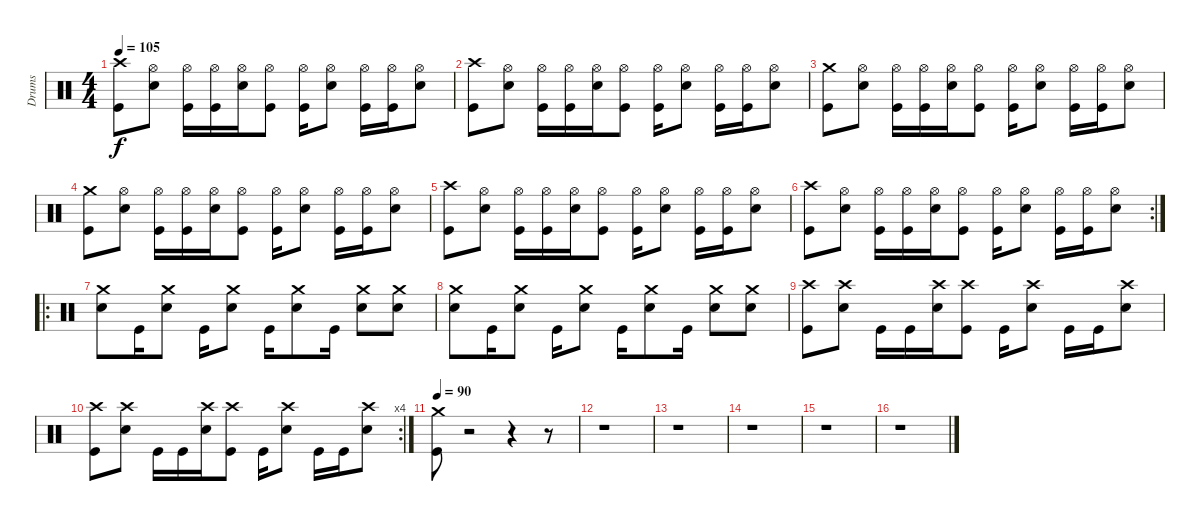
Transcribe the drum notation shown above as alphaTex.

\track ("Drums" "Drums") {instrument percussion}
\staff {score}
\articulation defaults
\ts (4 4)
\tempo 105
\clef neutral
\ks c
("Crash high (hit)" "Kick (hit)").8{dy f} ("Electric Snare (hit)" "Hi-Hat (open)").8 ("Hi-Hat (open)" "Kick (hit)").16 ("Hi-Hat (open)" "Kick (hit)").16 ("Electric Snare (hit)" "Hi-Hat (open)").16 ("Hi-Hat (open)" "Kick (hit)").8 ("Hi-Hat (open)" "Kick (hit)").16 ("Electric Snare (hit)" "Hi-Hat (open)").8 ("Hi-Hat (open)" "Kick (hit)").16 ("Hi-Hat (open)" "Kick (hit)").16 ("Electric Snare (hit)" "Hi-Hat (open)").8 |
("Crash high (hit)" "Kick (hit)").8 ("Electric Snare (hit)" "Hi-Hat (open)").8 ("Hi-Hat (open)" "Kick (hit)").16 ("Hi-Hat (open)" "Kick (hit)").16 ("Electric Snare (hit)" "Hi-Hat (open)").16 ("Hi-Hat (open)" "Kick (hit)").8 ("Hi-Hat (open)" "Kick (hit)").16 ("Electric Snare (hit)" "Hi-Hat (open)").8 ("Hi-Hat (open)" "Kick (hit)").16 ("Hi-Hat (open)" "Kick (hit)").16 ("Electric Snare (hit)" "Hi-Hat (open)").8 |
("Crash medium (hit)" "Kick (hit)").8 ("Electric Snare (hit)" "Hi-Hat (open)").8 ("Hi-Hat (open)" "Kick (hit)").16 ("Hi-Hat (open)" "Kick (hit)").16 ("Electric Snare (hit)" "Hi-Hat (open)").16 ("Hi-Hat (open)" "Kick (hit)").8 ("Hi-Hat (open)" "Kick (hit)").16 ("Electric Snare (hit)" "Hi-Hat (open)").8 ("Hi-Hat (open)" "Kick (hit)").16 ("Hi-Hat (open)" "Kick (hit)").16 ("Electric Snare (hit)" "Hi-Hat (open)").8 |
("Crash medium (hit)" "Kick (hit)").8 ("Electric Snare (hit)" "Hi-Hat (open)").8 ("Hi-Hat (open)" "Kick (hit)").16 ("Hi-Hat (open)" "Kick (hit)").16 ("Electric Snare (hit)" "Hi-Hat (open)").16 ("Hi-Hat (open)" "Kick (hit)").8 ("Hi-Hat (open)" "Kick (hit)").16 ("Electric Snare (hit)" "Hi-Hat (open)").8 ("Hi-Hat (open)" "Kick (hit)").16 ("Hi-Hat (open)" "Kick (hit)").16 ("Electric Snare (hit)" "Hi-Hat (open)").8 |
("Crash high (hit)" "Kick (hit)").8 ("Electric Snare (hit)" "Hi-Hat (open)").8 ("Hi-Hat (open)" "Kick (hit)").16 ("Hi-Hat (open)" "Kick (hit)").16 ("Electric Snare (hit)" "Hi-Hat (open)").16 ("Hi-Hat (open)" "Kick (hit)").8 ("Hi-Hat (open)" "Kick (hit)").16 ("Electric Snare (hit)" "Hi-Hat (open)").8 ("Hi-Hat (open)" "Kick (hit)").16 ("Hi-Hat (open)" "Kick (hit)").16 ("Electric Snare (hit)" "Hi-Hat (open)").8 |
\rc 2
("Crash high (hit)" "Kick (hit)").8 ("Electric Snare (hit)" "Hi-Hat (open)").8 ("Hi-Hat (open)" "Kick (hit)").16 ("Hi-Hat (open)" "Kick (hit)").16 ("Electric Snare (hit)" "Hi-Hat (open)").16 ("Hi-Hat (open)" "Kick (hit)").8 ("Hi-Hat (open)" "Kick (hit)").16 ("Electric Snare (hit)" "Hi-Hat (open)").8 ("Hi-Hat (open)" "Kick (hit)").16 ("Hi-Hat (open)" "Kick (hit)").16 ("Electric Snare (hit)" "Hi-Hat (open)").8 |
\ro
("Electric Snare (hit)" "Crash medium (hit)").8 "Kick (hit)".16 ("Electric Snare (hit)" "Crash medium (hit)").8 "Kick (hit)".16 ("Electric Snare (hit)" "Crash medium (hit)").8 "Kick (hit)".16 ("Electric Snare (hit)" "Crash medium (hit)").8 "Kick (hit)".16 ("Electric Snare (hit)" "Crash medium (hit)").8 ("Electric Snare (hit)" "Crash medium (hit)").8 |
("Electric Snare (hit)" "Crash medium (hit)").8 "Kick (hit)".16 ("Electric Snare (hit)" "Crash medium (hit)").8 "Kick (hit)".16 ("Electric Snare (hit)" "Crash medium (hit)").8 "Kick (hit)".16 ("Electric Snare (hit)" "Crash medium (hit)").8 "Kick (hit)".16 ("Electric Snare (hit)" "Crash medium (hit)").8 ("Electric Snare (hit)" "Crash medium (hit)").8 |
("Crash high (hit)" "Kick (hit)").8 ("Electric Snare (hit)" "Crash high (hit)").8 "Kick (hit)".16 "Kick (hit)".16 ("Electric Snare (hit)" "Crash high (hit)").16 ("Crash high (hit)" "Kick (hit)").8 "Kick (hit)".16 ("Electric Snare (hit)" "Crash high (hit)").8 "Kick (hit)".16 "Kick (hit)".16 ("Electric Snare (hit)" "Crash high (hit)").8 |
\rc 4
("Crash high (hit)" "Kick (hit)").8 ("Electric Snare (hit)" "Crash high (hit)").8 "Kick (hit)".16 "Kick (hit)".16 ("Electric Snare (hit)" "Crash high (hit)").16 ("Crash high (hit)" "Kick (hit)").8 "Kick (hit)".16 ("Electric Snare (hit)" "Crash high (hit)").8 "Kick (hit)".16 "Kick (hit)".16 ("Electric Snare (hit)" "Crash high (hit)").8 |
\tempo 90
("Crash medium (hit)" "Kick (hit)").8 r.2 r.4 r.8 |
r.1 |
r.1 |
r.1 |
r.1 |
r.1
